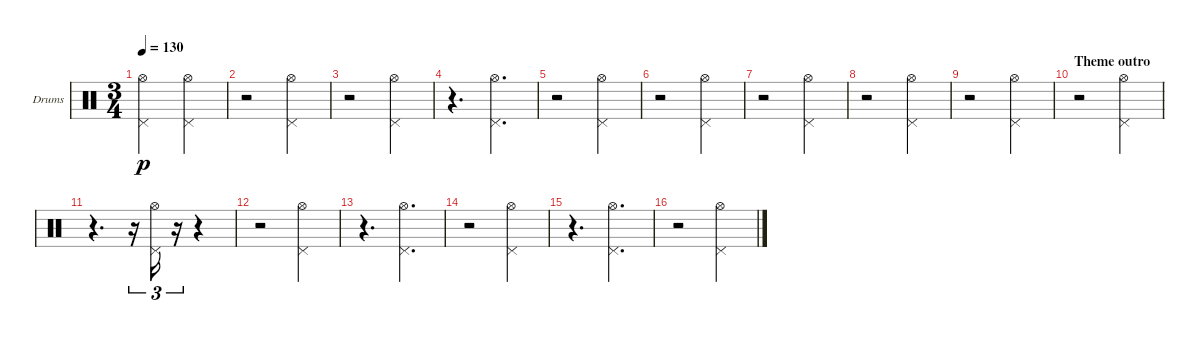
\bracketExtendMode groupsimilarinstruments
\firstSystemTrackNameOrientation horizontal
\otherSystemsTrackNameOrientation horizontal
\track ("HH" "Drums") {instrument percussion}
\staff {score}
\articulation defaults
\ts (3 4)
\tempo 130
\clef neutral
\ks c
("Pedal Hi-Hat (hit)" "Hi-Hat (open)").2{dy p} ("Pedal Hi-Hat (hit)" "Hi-Hat (open)").4 |
r.2 ("Pedal Hi-Hat (hit)" "Hi-Hat (open)").4 |
r.2 ("Pedal Hi-Hat (hit)" "Hi-Hat (open)").4 |
r.4{d} ("Pedal Hi-Hat (hit)" "Hi-Hat (open)").4{d} |
r.2 ("Pedal Hi-Hat (hit)" "Hi-Hat (open)").4 |
r.2 ("Pedal Hi-Hat (hit)" "Hi-Hat (open)").4 |
r.2 ("Pedal Hi-Hat (hit)" "Hi-Hat (open)").4 |
r.2 ("Pedal Hi-Hat (hit)" "Hi-Hat (open)").4 |
r.2 ("Pedal Hi-Hat (hit)" "Hi-Hat (open)").4 |
\section ("" "Theme outro")
r.2 ("Pedal Hi-Hat (hit)" "Hi-Hat (open)").4 |
r.4{d} r.16{tu (3 2)} ("Pedal Hi-Hat (hit)" "Hi-Hat (open)").16{tu (3 2)} r.16{tu (3 2)} r.4 |
r.2 ("Pedal Hi-Hat (hit)" "Hi-Hat (open)").4 |
r.4{d} ("Pedal Hi-Hat (hit)" "Hi-Hat (open)").4{d} |
r.2 ("Pedal Hi-Hat (hit)" "Hi-Hat (open)").4 |
r.4{d} ("Pedal Hi-Hat (hit)" "Hi-Hat (open)").4{d} |
r.2 ("Pedal Hi-Hat (hit)" "Hi-Hat (open)").4
